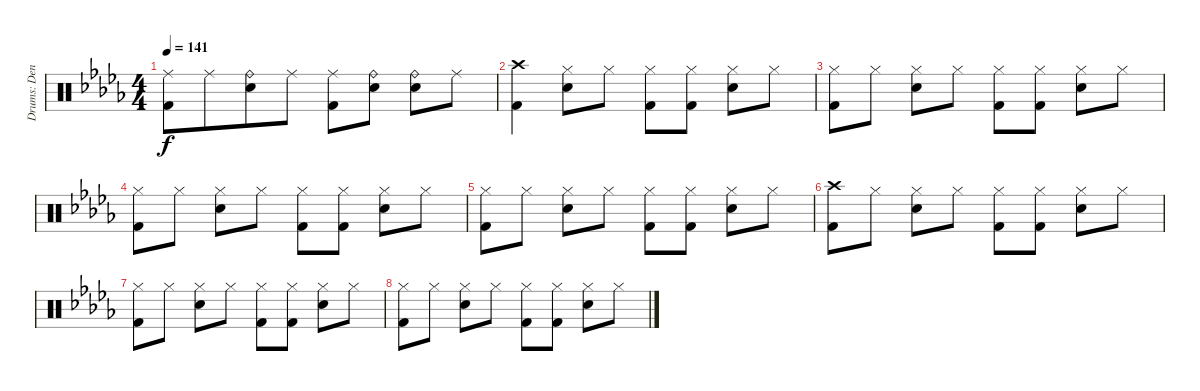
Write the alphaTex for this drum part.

\track ("Drums: Denny" "Drums: Den") {instrument percussion}
\staff {score}
\articulation defaults
\ts (4 4)
\tempo 141
\clef neutral
\ks db
("Ride (middle)" "Kick (hit) 2").8{dy f} "Ride (middle)".8{beam merge} ("Ride (bell)" "Snare (hit) 2").8 "Ride (middle)".8 ("Ride (middle)" "Kick (hit) 2").8 ("Ride (bell)" "Snare (hit) 2").8 ("Ride (bell)" "Snare (hit) 2").8 "Ride (middle)".8 |
("Crash high (hit)" "Kick (hit) 2").4 ("Hi-Hat (closed)" "Snare (hit) 2").8 "Hi-Hat (closed)".8 ("Hi-Hat (closed)" "Kick (hit) 2").8 ("Hi-Hat (closed)" "Kick (hit) 2").8 ("Hi-Hat (closed)" "Snare (hit) 2").8 "Hi-Hat (closed)".8 |
("Hi-Hat (closed)" "Kick (hit) 2").8 "Hi-Hat (closed)".8 ("Hi-Hat (closed)" "Snare (hit) 2").8 "Hi-Hat (closed)".8 ("Hi-Hat (closed)" "Kick (hit) 2").8 ("Hi-Hat (closed)" "Kick (hit) 2").8 ("Hi-Hat (closed)" "Snare (hit) 2").8 "Hi-Hat (closed)".8 |
("Hi-Hat (closed)" "Kick (hit) 2").8 "Hi-Hat (closed)".8 ("Hi-Hat (closed)" "Snare (hit) 2").8 "Hi-Hat (closed)".8 ("Hi-Hat (closed)" "Kick (hit) 2").8 ("Hi-Hat (closed)" "Kick (hit) 2").8 ("Hi-Hat (closed)" "Snare (hit) 2").8 "Hi-Hat (closed)".8 |
("Hi-Hat (closed)" "Kick (hit) 2").8 "Hi-Hat (closed)".8 ("Hi-Hat (closed)" "Snare (hit) 2").8 "Hi-Hat (closed)".8 ("Hi-Hat (closed)" "Kick (hit) 2").8 ("Hi-Hat (closed)" "Kick (hit) 2").8 ("Hi-Hat (closed)" "Snare (hit) 2").8 "Hi-Hat (closed)".8 |
("Crash high (hit)" "Kick (hit) 2").8 "Hi-Hat (closed)".8 ("Hi-Hat (closed)" "Snare (hit) 2").8 "Hi-Hat (closed)".8 ("Hi-Hat (closed)" "Kick (hit) 2").8 ("Hi-Hat (closed)" "Kick (hit) 2").8 ("Hi-Hat (closed)" "Snare (hit) 2").8 "Hi-Hat (closed)".8 |
("Hi-Hat (closed)" "Kick (hit) 2").8 "Hi-Hat (closed)".8 ("Hi-Hat (closed)" "Snare (hit) 2").8 "Hi-Hat (closed)".8 ("Hi-Hat (closed)" "Kick (hit) 2").8 ("Hi-Hat (closed)" "Kick (hit) 2").8 ("Hi-Hat (closed)" "Snare (hit) 2").8 "Hi-Hat (closed)".8 |
("Hi-Hat (closed)" "Kick (hit) 2").8 "Hi-Hat (closed)".8 ("Hi-Hat (closed)" "Snare (hit) 2").8 "Hi-Hat (closed)".8 ("Hi-Hat (closed)" "Kick (hit) 2").8 ("Hi-Hat (closed)" "Kick (hit) 2").8 ("Hi-Hat (closed)" "Snare (hit) 2").8 "Hi-Hat (closed)".8
